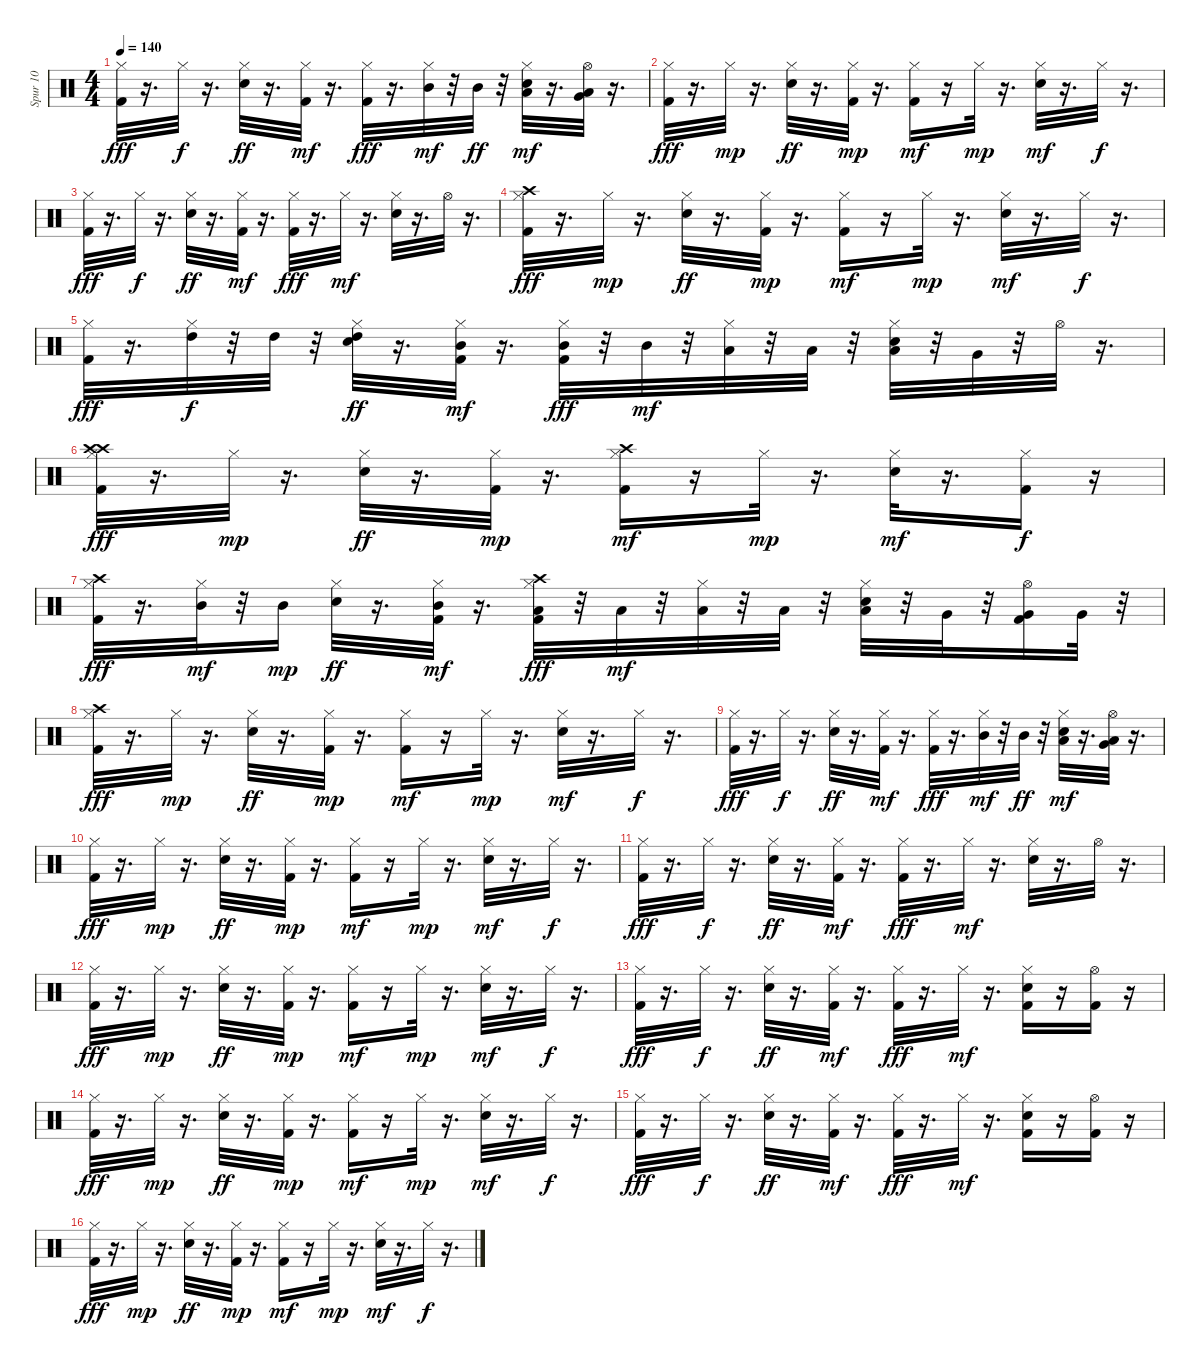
\track ("Spur 10" "Spur 10") {instrument percussion}
\staff {score}
\articulation defaults
\ts (4 4)
\tempo 140
\clef neutral
\ks c
("Hi-Hat (closed)" "Kick (hit) 2").32{dy fff} r.16{d} "Hi-Hat (closed)".32{dy f} r.16{d} ("Hi-Hat (closed)" "Snare (hit) 2").32{dy ff} r.16{d} ("Kick (hit) 2" "Hi-Hat (closed)").32{dy mf} r.16{d} ("Hi-Hat (closed)" "Kick (hit) 2").32{dy fff} r.16{d} ("Mid Tom (hit)" "Hi-Hat (closed)").32{dy mf} r.32 "Mid Tom (hit)".32{dy ff} r.32 ("Low Tom (hit)" "Snare (hit) 2" "Hi-Hat (closed)").32{dy mf} r.16{d} ("Low Tom (hit)" "Very Low Tom (hit)" "Hi-Hat (open)").32 r.16{d} |
("Hi-Hat (closed)" "Kick (hit) 2").32{dy fff} r.16{d} "Hi-Hat (closed)".32{dy mp} r.16{d} ("Hi-Hat (closed)" "Snare (hit) 2").32{dy ff} r.16{d} ("Kick (hit) 2" "Hi-Hat (closed)").32{dy mp} r.16{d} ("Kick (hit) 2" "Hi-Hat (closed)").16{dy mf} r.16 "Hi-Hat (closed)".32{dy mp} r.16{d} ("Snare (hit) 2" "Hi-Hat (closed)").32{dy mf} r.16{d} "Hi-Hat (closed)".32{dy f} r.16{d} |
("Hi-Hat (closed)" "Kick (hit) 2").32{dy fff} r.16{d} "Hi-Hat (closed)".32{dy f} r.16{d} ("Hi-Hat (closed)" "Snare (hit) 2").32{dy ff} r.16{d} ("Kick (hit) 2" "Hi-Hat (closed)").32{dy mf} r.16{d} ("Hi-Hat (closed)" "Kick (hit) 2").32{dy fff} r.16{d} "Hi-Hat (closed)".32{dy mf} r.16{d} ("Snare (hit) 2" "Hi-Hat (closed)").32 r.16{d} "Hi-Hat (open)".32 r.16{d} |
("Crash high (hit)" "Hi-Hat (closed)" "Kick (hit) 2").32{dy fff} r.16{d} "Hi-Hat (closed)".32{dy mp} r.16{d} ("Hi-Hat (closed)" "Snare (hit) 2").32{dy ff} r.16{d} ("Kick (hit) 2" "Hi-Hat (closed)").32{dy mp} r.16{d} ("Kick (hit) 2" "Hi-Hat (closed)").16{dy mf} r.16 "Hi-Hat (closed)".32{dy mp} r.16{d} ("Snare (hit) 2" "Hi-Hat (closed)").32{dy mf} r.16{d} "Hi-Hat (closed)".32{dy f} r.16{d} |
("Hi-Hat (closed)" "Kick (hit) 2").32{dy fff} r.16{d} ("High Tom (hit)" "Hi-Hat (closed)").32{dy f} r.32 "High Tom (hit)".32 r.32 ("High Tom (hit)" "Hi-Hat (closed)" "Snare (hit) 2").32{dy ff} r.16{d} ("Mid Tom (hit)" "Kick (hit) 2" "Hi-Hat (closed)").32{dy mf} r.16{d} ("Mid Tom (hit)" "Hi-Hat (closed)" "Kick (hit) 2").32{dy fff} r.32 "Mid Tom (hit)".32{dy mf} r.32 ("Low Tom (hit)" "Hi-Hat (closed)").32 r.32 "Low Tom (hit)".32 r.32 ("Low Tom (hit)" "Snare (hit) 2" "Hi-Hat (closed)").32 r.32 "Very Low Tom (hit)".32 r.32 "Hi-Hat (open)".32 r.16{d} |
("Crash high (hit)" "Crash high (hit)" "Hi-Hat (closed)" "Kick (hit) 2").32{dy fff} r.16{d} "Hi-Hat (closed)".32{dy mp} r.16{d} ("Hi-Hat (closed)" "Snare (hit) 2").32{dy ff} r.16{d} ("Kick (hit) 2" "Hi-Hat (closed)").32{dy mp} r.16{d} ("Crash high (hit)" "Kick (hit) 2" "Hi-Hat (closed)").16{dy mf} r.16 "Hi-Hat (closed)".32{dy mp} r.16{d} ("Snare (hit) 2" "Hi-Hat (closed)").32{dy mf} r.16{d} ("Kick (hit) 2" "Hi-Hat (closed)").16{dy f} r.16 |
("Crash high (hit)" "Hi-Hat (closed)" "Kick (hit) 2").32{dy fff} r.16{d} ("Mid Tom (hit)" "Hi-Hat (closed)").32{dy mf} r.32 "Mid Tom (hit)".16{dy mp} ("Hi-Hat (closed)" "Snare (hit) 2").32{dy ff} r.16{d} ("Mid Tom (hit)" "Kick (hit) 2" "Hi-Hat (closed)").32{dy mf} r.16{d} ("Crash high (hit)" "Low Tom (hit)" "Hi-Hat (closed)" "Kick (hit) 2").32{dy fff} r.32 "Low Tom (hit)".32{dy mf} r.32 ("Low Tom (hit)" "Hi-Hat (closed)").32 r.32 "Low Tom (hit)".32 r.32 ("Low Tom (hit)" "Snare (hit) 2" "Hi-Hat (closed)").32 r.32 "Very Low Tom (hit)".32 r.32 ("Very Low Tom (hit)" "Kick (hit) 2" "Hi-Hat (open)").16 "Very Low Tom (hit)".32 r.32 |
("Crash high (hit)" "Hi-Hat (closed)" "Kick (hit) 2").32{dy fff} r.16{d} "Hi-Hat (closed)".32{dy mp} r.16{d} ("Hi-Hat (closed)" "Snare (hit) 2").32{dy ff} r.16{d} ("Kick (hit) 2" "Hi-Hat (closed)").32{dy mp} r.16{d} ("Kick (hit) 2" "Hi-Hat (closed)").16{dy mf} r.16 "Hi-Hat (closed)".32{dy mp} r.16{d} ("Snare (hit) 2" "Hi-Hat (closed)").32{dy mf} r.16{d} "Hi-Hat (closed)".32{dy f} r.16{d} |
("Hi-Hat (closed)" "Kick (hit) 2").32{dy fff} r.16{d} "Hi-Hat (closed)".32{dy f} r.16{d} ("Hi-Hat (closed)" "Snare (hit) 2").32{dy ff} r.16{d} ("Kick (hit) 2" "Hi-Hat (closed)").32{dy mf} r.16{d} ("Hi-Hat (closed)" "Kick (hit) 2").32{dy fff} r.16{d} ("Mid Tom (hit)" "Hi-Hat (closed)").32{dy mf} r.32 "Mid Tom (hit)".32{dy ff} r.32 ("Low Tom (hit)" "Snare (hit) 2" "Hi-Hat (closed)").32{dy mf} r.16{d} ("Low Tom (hit)" "Very Low Tom (hit)" "Hi-Hat (open)").32 r.16{d} |
("Hi-Hat (closed)" "Kick (hit) 2").32{dy fff} r.16{d} "Hi-Hat (closed)".32{dy mp} r.16{d} ("Hi-Hat (closed)" "Snare (hit) 2").32{dy ff} r.16{d} ("Kick (hit) 2" "Hi-Hat (closed)").32{dy mp} r.16{d} ("Kick (hit) 2" "Hi-Hat (closed)").16{dy mf} r.16 "Hi-Hat (closed)".32{dy mp} r.16{d} ("Snare (hit) 2" "Hi-Hat (closed)").32{dy mf} r.16{d} "Hi-Hat (closed)".32{dy f} r.16{d} |
("Hi-Hat (closed)" "Kick (hit) 2").32{dy fff} r.16{d} "Hi-Hat (closed)".32{dy f} r.16{d} ("Hi-Hat (closed)" "Snare (hit) 2").32{dy ff} r.16{d} ("Kick (hit) 2" "Hi-Hat (closed)").32{dy mf} r.16{d} ("Hi-Hat (closed)" "Kick (hit) 2").32{dy fff} r.16{d} "Hi-Hat (closed)".32{dy mf} r.16{d} ("Snare (hit) 2" "Hi-Hat (closed)").32 r.16{d} "Hi-Hat (open)".32 r.16{d} |
("Hi-Hat (closed)" "Kick (hit) 2").32{dy fff} r.16{d} "Hi-Hat (closed)".32{dy mp} r.16{d} ("Hi-Hat (closed)" "Snare (hit) 2").32{dy ff} r.16{d} ("Kick (hit) 2" "Hi-Hat (closed)").32{dy mp} r.16{d} ("Kick (hit) 2" "Hi-Hat (closed)").16{dy mf} r.16 "Hi-Hat (closed)".32{dy mp} r.16{d} ("Snare (hit) 2" "Hi-Hat (closed)").32{dy mf} r.16{d} "Hi-Hat (closed)".32{dy f} r.16{d} |
("Hi-Hat (closed)" "Kick (hit) 2").32{dy fff} r.16{d} "Hi-Hat (closed)".32{dy f} r.16{d} ("Hi-Hat (closed)" "Snare (hit) 2").32{dy ff} r.16{d} ("Kick (hit) 2" "Hi-Hat (closed)").32{dy mf} r.16{d} ("Hi-Hat (closed)" "Kick (hit) 2").32{dy fff} r.16{d} "Hi-Hat (closed)".32{dy mf} r.16{d} ("Kick (hit) 2" "Snare (hit) 2" "Hi-Hat (closed)").16 r.16 ("Kick (hit) 2" "Hi-Hat (open)").16 r.16 |
("Hi-Hat (closed)" "Kick (hit) 2").32{dy fff} r.16{d} "Hi-Hat (closed)".32{dy mp} r.16{d} ("Hi-Hat (closed)" "Snare (hit) 2").32{dy ff} r.16{d} ("Kick (hit) 2" "Hi-Hat (closed)").32{dy mp} r.16{d} ("Kick (hit) 2" "Hi-Hat (closed)").16{dy mf} r.16 "Hi-Hat (closed)".32{dy mp} r.16{d} ("Snare (hit) 2" "Hi-Hat (closed)").32{dy mf} r.16{d} "Hi-Hat (closed)".32{dy f} r.16{d} |
("Hi-Hat (closed)" "Kick (hit) 2").32{dy fff} r.16{d} "Hi-Hat (closed)".32{dy f} r.16{d} ("Hi-Hat (closed)" "Snare (hit) 2").32{dy ff} r.16{d} ("Kick (hit) 2" "Hi-Hat (closed)").32{dy mf} r.16{d} ("Hi-Hat (closed)" "Kick (hit) 2").32{dy fff} r.16{d} "Hi-Hat (closed)".32{dy mf} r.16{d} ("Kick (hit) 2" "Snare (hit) 2" "Hi-Hat (closed)").16 r.16 ("Kick (hit) 2" "Hi-Hat (open)").16 r.16 |
("Hi-Hat (closed)" "Kick (hit) 2").32{dy fff} r.16{d} "Hi-Hat (closed)".32{dy mp} r.16{d} ("Hi-Hat (closed)" "Snare (hit) 2").32{dy ff} r.16{d} ("Kick (hit) 2" "Hi-Hat (closed)").32{dy mp} r.16{d} ("Kick (hit) 2" "Hi-Hat (closed)").16{dy mf} r.16 "Hi-Hat (closed)".32{dy mp} r.16{d} ("Snare (hit) 2" "Hi-Hat (closed)").32{dy mf} r.16{d} "Hi-Hat (closed)".32{dy f} r.16{d}
